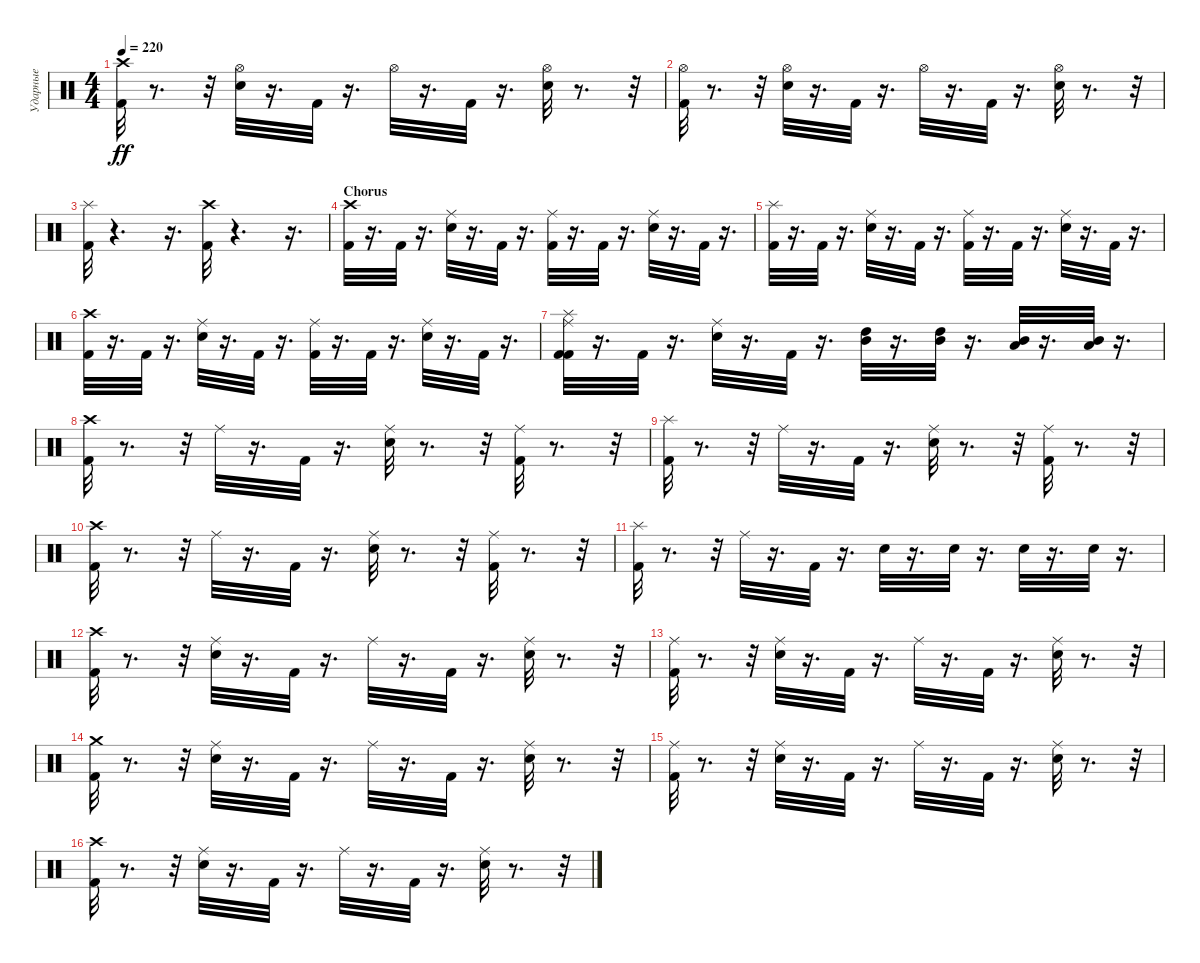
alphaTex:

\track ("Ударные" "Ударные") {instrument percussion}
\staff {score}
\articulation defaults
\ts (4 4)
\tempo 220
\clef neutral
\ks c
("Crash high (hit)" "Kick (hit) 2").32{dy ff} r.8{d} r.32 ("Hi-Hat (open)" "Snare (hit) 2").32 r.16{d} "Kick (hit) 2".32 r.16{d} "Hi-Hat (open)".32 r.16{d} "Kick (hit) 2".32 r.16{d} ("Hi-Hat (open)" "Snare (hit) 2").32 r.8{d} r.32 |
("Kick (hit) 2" "Hi-Hat (open)").32 r.8{d} r.32 ("Snare (hit) 2" "Hi-Hat (open)").32 r.16{d} "Kick (hit) 2".32 r.16{d} "Hi-Hat (open)".32 r.16{d} "Kick (hit) 2".32 r.16{d} ("Hi-Hat (open)" "Snare (hit) 2").32 r.8{d} r.32 |
("Splash (hit)" "Kick (hit) 2").32 r.4{d} r.16{d} ("Crash high (hit)" "Kick (hit) 2").32 r.4{d} r.16{d} |
\section ("" "Chorus")
("Crash high (hit)" "Kick (hit) 2").32 r.16{d} "Kick (hit) 2".32 r.16{d} ("Ride (middle)" "Snare (hit) 2").32 r.16{d} "Kick (hit) 2".32 r.16{d} ("Ride (middle)" "Kick (hit) 2").32 r.16{d} "Kick (hit) 2".32 r.16{d} ("Snare (hit) 2" "Ride (middle)").32 r.16{d} "Kick (hit) 2".32 r.16{d} |
("Kick (hit) 2" "Splash (hit)").32 r.16{d} "Kick (hit) 2".32 r.16{d} ("Snare (hit) 2" "Ride (middle)").32 r.16{d} "Kick (hit) 2".32 r.16{d} ("Kick (hit) 2" "Ride (middle)").32 r.16{d} "Kick (hit) 2".32 r.16{d} ("Snare (hit) 2" "Ride (middle)").32 r.16{d} "Kick (hit) 2".32 r.16{d} |
("Crash high (hit)" "Kick (hit) 2").32 r.16{d} "Kick (hit) 2".32 r.16{d} ("Ride (middle)" "Snare (hit) 2").32 r.16{d} "Kick (hit) 2".32 r.16{d} ("Ride (middle)" "Kick (hit) 2").32 r.16{d} "Kick (hit) 2".32 r.16{d} ("Snare (hit) 2" "Ride (middle)").32 r.16{d} "Kick (hit) 2".32 r.16{d} |
("Ride (middle)" "Kick (hit) 2" "Kick (hit) 2" "Splash (hit)").32 r.16{d} "Kick (hit) 2".32 r.16{d} ("Ride (middle)" "Snare (hit) 2").32 r.16{d} "Kick (hit) 2".32 r.16{d} ("Mid Tom (hit)" "High Tom (hit)").32 r.16{d} ("Mid Tom (hit)" "High Tom (hit)").32 r.16{d} ("Low Tom (hit)" "Mid Tom (hit)").32 r.16{d} ("Low Tom (hit)" "Mid Tom (hit)").32 r.16{d} |
("Kick (hit) 2" "Crash high (hit)").32 r.8{d} r.32 "Ride (middle)".32 r.16{d} "Kick (hit) 2".32 r.16{d} ("Snare (hit) 2" "Ride (middle)").32 r.8{d} r.32 ("Kick (hit) 2" "Ride (middle)").32 r.8{d} r.32 |
("Splash (hit)" "Kick (hit) 2").32 r.8{d} r.32 "Ride (middle)".32 r.16{d} "Kick (hit) 2".32 r.16{d} ("Ride (middle)" "Snare (hit) 2").32 r.8{d} r.32 ("Ride (middle)" "Kick (hit) 2").32 r.8{d} r.32 |
("Kick (hit) 2" "Crash high (hit)").32 r.8{d} r.32 "Ride (middle)".32 r.16{d} "Kick (hit) 2".32 r.16{d} ("Snare (hit) 2" "Ride (middle)").32 r.8{d} r.32 ("Kick (hit) 2" "Ride (middle)").32 r.8{d} r.32 |
("Splash (hit)" "Kick (hit) 2").32 r.8{d} r.32 "Ride (middle)".32 r.16{d} "Kick (hit) 2".32 r.16{d} "Snare (hit) 2".32 r.16{d} "Snare (hit) 2".32 r.16{d} "Snare (hit) 2".32 r.16{d} "Snare (hit) 2".32 r.16{d} |
("Crash high (hit)" "Kick (hit) 2").32 r.8{d} r.32 ("Ride (middle)" "Snare (hit) 2").32 r.16{d} "Kick (hit) 2".32 r.16{d} "Ride (middle)".32 r.16{d} "Kick (hit) 2".32 r.16{d} ("Ride (middle)" "Snare (hit) 2").32 r.8{d} r.32 |
("Kick (hit) 2" "Ride (middle)").32 r.8{d} r.32 ("Snare (hit) 2" "Ride (middle)").32 r.16{d} "Kick (hit) 2".32 r.16{d} "Ride (middle)".32 r.16{d} "Kick (hit) 2".32 r.16{d} ("Snare (hit) 2" "Ride (middle)").32 r.8{d} r.32 |
("Crash medium (hit)" "Kick (hit) 2").32 r.8{d} r.32 ("Ride (middle)" "Snare (hit) 2").32 r.16{d} "Kick (hit) 2".32 r.16{d} "Ride (middle)".32 r.16{d} "Kick (hit) 2".32 r.16{d} ("Ride (middle)" "Snare (hit) 2").32 r.8{d} r.32 |
("Kick (hit) 2" "Ride (middle)").32 r.8{d} r.32 ("Snare (hit) 2" "Ride (middle)").32 r.16{d} "Kick (hit) 2".32 r.16{d} "Ride (middle)".32 r.16{d} "Kick (hit) 2".32 r.16{d} ("Snare (hit) 2" "Ride (middle)").32 r.8{d} r.32 |
("Crash high (hit)" "Kick (hit) 2").32 r.8{d} r.32 ("Ride (middle)" "Snare (hit) 2").32 r.16{d} "Kick (hit) 2".32 r.16{d} "Ride (middle)".32 r.16{d} "Kick (hit) 2".32 r.16{d} ("Ride (middle)" "Snare (hit) 2").32 r.8{d} r.32
